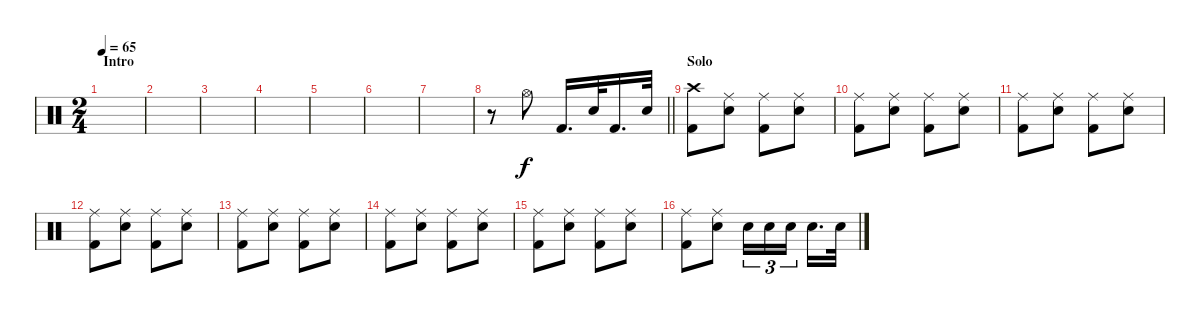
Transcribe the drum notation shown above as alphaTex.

\track "" {instrument percussion}
\staff {score}
\articulation defaults
\ts (2 4)
\section ("" "Intro")
\tempo 65
\clef neutral
\ks c
|
|
|
|
|
|
|
\barLineRight lightlight
r.8 "Hi-Hat (open)".8 "Kick (hit) 2".16{d} "Snare (hit) 2".32 "Kick (hit) 2".16{d} "Snare (hit) 2".32 |
\section ("" "Solo")
("Crash high (hit)" "Kick (hit) 2").8 ("Ride (middle)" "Snare (hit) 2").8 ("Ride (middle)" "Kick (hit) 2").8 ("Ride (middle)" "Snare (hit) 2").8 |
("Ride (middle)" "Kick (hit) 2").8 ("Ride (middle)" "Snare (hit) 2").8 ("Ride (middle)" "Kick (hit) 2").8 ("Ride (middle)" "Snare (hit) 2").8 |
("Ride (middle)" "Kick (hit) 2").8 ("Ride (middle)" "Snare (hit) 2").8 ("Ride (middle)" "Kick (hit) 2").8 ("Ride (middle)" "Snare (hit) 2").8 |
("Ride (middle)" "Kick (hit) 2").8 ("Ride (middle)" "Snare (hit) 2").8 ("Ride (middle)" "Kick (hit) 2").8 ("Ride (middle)" "Snare (hit) 2").8 |
("Ride (middle)" "Kick (hit) 2").8 ("Ride (middle)" "Snare (hit) 2").8 ("Ride (middle)" "Kick (hit) 2").8 ("Ride (middle)" "Snare (hit) 2").8 |
("Ride (middle)" "Kick (hit) 2").8 ("Ride (middle)" "Snare (hit) 2").8 ("Ride (middle)" "Kick (hit) 2").8 ("Ride (middle)" "Snare (hit) 2").8 |
("Ride (middle)" "Kick (hit) 2").8{txt ""} ("Ride (middle)" "Snare (hit) 2").8 ("Ride (middle)" "Kick (hit) 2").8 ("Ride (middle)" "Snare (hit) 2").8 |
("Ride (middle)" "Kick (hit) 2").8 ("Ride (middle)" "Snare (hit) 2").8 "Snare (hit) 2".16{tu (3 2)} "Snare (hit) 2".16{tu (3 2)} "Snare (hit) 2".16{tu (3 2) beam splitsecondary} "Snare (hit) 2".16{d} "Snare (hit) 2".32
